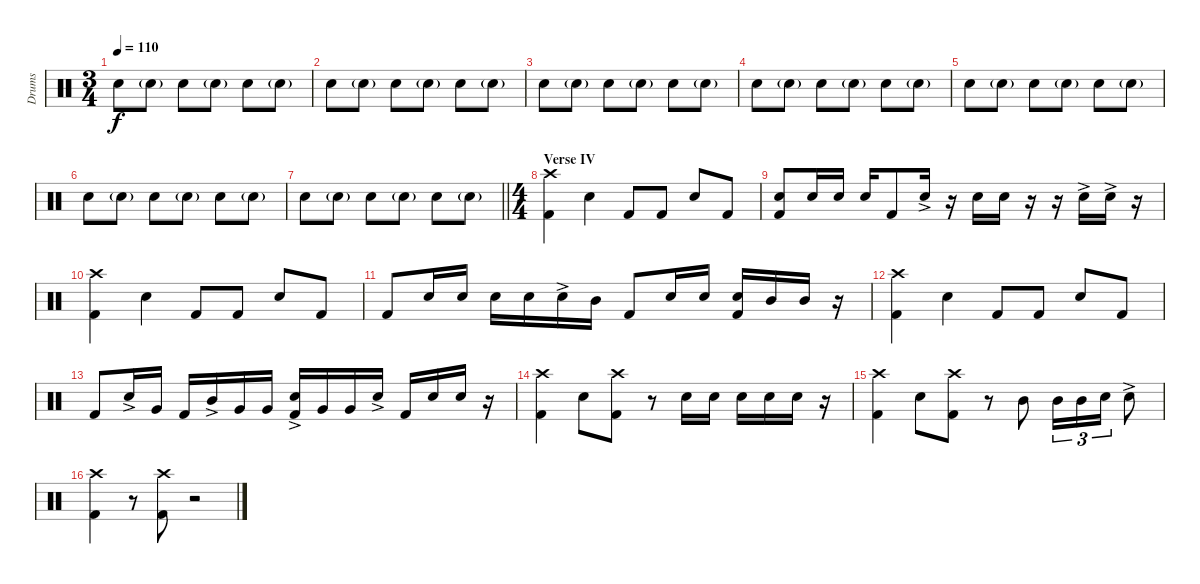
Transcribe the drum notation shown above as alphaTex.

\track ("Drums" "Drums") {instrument percussion}
\staff {score}
\articulation defaults
\ts (3 4)
\tempo 110
\clef neutral
\ks c "Snare (hit) 2".8{dy f} "Snare (hit) 2"{g}.8 "Snare (hit) 2".8 "Snare (hit) 2"{g}.8 "Snare (hit) 2".8 "Snare (hit) 2"{g}.8
|
"Snare (hit) 2".8 "Snare (hit) 2"{g}.8 "Snare (hit) 2".8 "Snare (hit) 2"{g}.8 "Snare (hit) 2".8 "Snare (hit) 2"{g}.8 |
"Snare (hit) 2".8 "Snare (hit) 2"{g}.8 "Snare (hit) 2".8 "Snare (hit) 2"{g}.8 "Snare (hit) 2".8 "Snare (hit) 2"{g}.8 |
"Snare (hit) 2".8 "Snare (hit) 2"{g}.8 "Snare (hit) 2".8 "Snare (hit) 2"{g}.8 "Snare (hit) 2".8 "Snare (hit) 2"{g}.8 |
"Snare (hit) 2".8 "Snare (hit) 2"{g}.8 "Snare (hit) 2".8 "Snare (hit) 2"{g}.8 "Snare (hit) 2".8 "Snare (hit) 2"{g}.8 |
"Snare (hit) 2".8 "Snare (hit) 2"{g}.8 "Snare (hit) 2".8 "Snare (hit) 2"{g}.8 "Snare (hit) 2".8 "Snare (hit) 2"{g}.8 |
\barLineRight lightlight "Snare (hit) 2".8 "Snare (hit) 2"{g}.8 "Snare (hit) 2".8 "Snare (hit) 2"{g}.8 "Snare (hit) 2".8 "Snare (hit) 2"{g}.8
|
\ts (4 4)
\section ("" "Verse IV")
("Crash high (hit)" "Kick (hit) 2").4 "Snare (hit) 2".4 "Kick (hit) 2".8 "Kick (hit) 2".8 "Snare (hit) 2".8 "Kick (hit) 2".8 |
("Snare (hit) 2" "Kick (hit) 2").8 "Snare (hit) 2".16 "Snare (hit) 2".16 "Snare (hit) 2".16 "Kick (hit) 2".8 "Snare (hit) 2"{ac}.16 r.16 "Snare (hit) 2".16 "Snare (hit) 2".16 r.16 r.16 "Snare (hit) 2"{ac}.16 "Snare (hit) 2"{ac}.16 r.16 |
("Crash high (hit)" "Kick (hit) 2").4 "Snare (hit) 2".4 "Kick (hit) 2".8 "Kick (hit) 2".8 "Snare (hit) 2".8 "Kick (hit) 2".8 |
"Kick (hit) 2".8 "Snare (hit) 2".16 "Snare (hit) 2".16 "Snare (hit) 2".16 "Snare (hit) 2".16 "Snare (hit) 2"{ac}.16 "Mid Tom (hit)".16 "Kick (hit) 2".8 "Snare (hit) 2".16 "Snare (hit) 2".16 ("Snare (hit) 2" "Kick (hit) 2").16 "Mid Tom (hit)".16 "Mid Tom (hit)".16 r.16 |
("Crash high (hit)" "Kick (hit) 2").4 "Snare (hit) 2".4 "Kick (hit) 2".8 "Kick (hit) 2".8 "Snare (hit) 2".8 "Kick (hit) 2".8 |
"Kick (hit) 2".8 "Snare (hit) 2"{ac}.16 "Very Low Tom (hit)".16 "Kick (hit) 2".16 "Mid Tom (hit)"{ac}.16 "Very Low Tom (hit)".16 "Very Low Tom (hit)".16 ("Snare (hit) 2"{ac} "Kick (hit) 2").16 "Very Low Tom (hit)".16 "Very Low Tom (hit)".16 "Snare (hit) 2"{ac}.16 "Kick (hit) 2".16 "Snare (hit) 2".16 "Snare (hit) 2".16 r.16 |
("Crash high (hit)" "Kick (hit) 2").4 "Snare (hit) 2".8 ("Crash high (hit)" "Kick (hit) 2").8 r.8 "Snare (hit) 2".16 "Snare (hit) 2".16 "Snare (hit) 2".16 "Snare (hit) 2".16 "Snare (hit) 2".16 r.16 |
("Crash high (hit)" "Kick (hit) 2").4 "Snare (hit) 2".8 ("Crash high (hit)" "Kick (hit) 2").8 r.8 "Mid Tom (hit)".8 "Mid Tom (hit)".16{tu (3 2)} "Mid Tom (hit)".16{tu (3 2)} "Snare (hit) 2".16{tu (3 2)} "Snare (hit) 2"{ac}.8 |
("Crash high (hit)" "Kick (hit) 2").4 r.8 ("Crash high (hit)" "Kick (hit) 2").8 r.2
